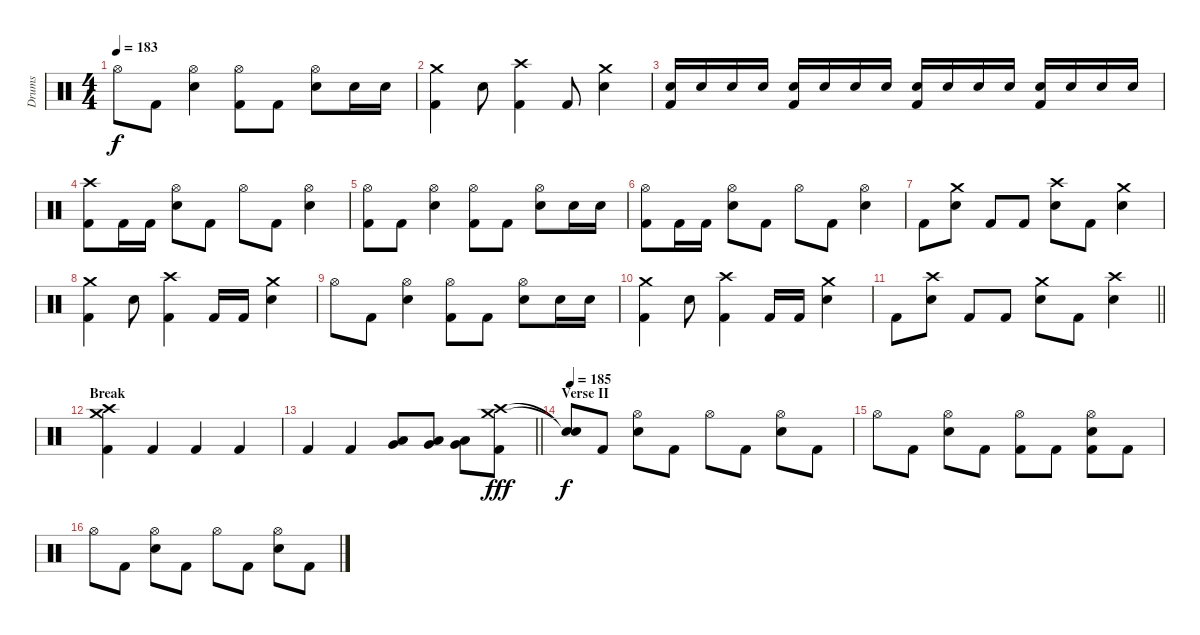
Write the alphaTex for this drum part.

\track ("Drums" "Drums") {instrument percussion}
\staff {score}
\articulation defaults
\ts (4 4)
\tempo 183
\clef neutral
\ks c "Hi-Hat (open)".8{dy f} "Kick (hit) 2".8
("Hi-Hat (open)" "Electric Snare (hit)").4 ("Hi-Hat (open)" "Kick (hit) 2").8 "Kick (hit) 2".8 ("Hi-Hat (open)" "Electric Snare (hit)").8 "Electric Snare (hit)".16 "Electric Snare (hit)".16 |
("Crash medium (hit)" "Kick (hit) 2").4 "Electric Snare (hit)".8 ("Crash high (hit)" "Kick (hit) 2").4 "Kick (hit) 2".8 ("Crash medium (hit)" "Electric Snare (hit)").4 |
("Electric Snare (hit)" "Kick (hit) 2").16 "Electric Snare (hit)".16 "Electric Snare (hit)".16 "Electric Snare (hit)".16 ("Electric Snare (hit)" "Kick (hit) 2").16 "Electric Snare (hit)".16 "Electric Snare (hit)".16 "Electric Snare (hit)".16 ("Electric Snare (hit)" "Kick (hit) 2").16 "Electric Snare (hit)".16 "Electric Snare (hit)".16 "Electric Snare (hit)".16 ("Electric Snare (hit)" "Kick (hit) 2").16 "Electric Snare (hit)".16 "Electric Snare (hit)".16 "Electric Snare (hit)".16 |
("Crash high (hit)" "Kick (hit) 2").8 "Kick (hit) 2".16 "Kick (hit) 2".16 ("Hi-Hat (open)" "Electric Snare (hit)").8 "Kick (hit) 2".8 "Hi-Hat (open)".8 "Kick (hit) 2".8 ("Hi-Hat (open)" "Electric Snare (hit)").4 |
("Hi-Hat (open)" "Kick (hit) 2").8 "Kick (hit) 2".8 ("Hi-Hat (open)" "Electric Snare (hit)").4 ("Hi-Hat (open)" "Kick (hit) 2").8 "Kick (hit) 2".8 ("Hi-Hat (open)" "Electric Snare (hit)").8 "Electric Snare (hit)".16 "Electric Snare (hit)".16 |
("Hi-Hat (open)" "Kick (hit) 2").8 "Kick (hit) 2".16 "Kick (hit) 2".16 ("Hi-Hat (open)" "Electric Snare (hit)").8 "Kick (hit) 2".8 "Hi-Hat (open)".8 "Kick (hit) 2".8 ("Hi-Hat (open)" "Electric Snare (hit)").4 |
"Kick (hit) 2".8 ("Crash medium (hit)" "Electric Snare (hit)").8 "Kick (hit) 2".8 "Kick (hit) 2".8 ("Crash high (hit)" "Electric Snare (hit)").8 "Kick (hit) 2".8 ("Crash medium (hit)" "Electric Snare (hit)").4 |
("Crash medium (hit)" "Kick (hit) 2").4 "Electric Snare (hit)".8 ("Crash high (hit)" "Kick (hit) 2").4 "Kick (hit) 2".16 "Kick (hit) 2".16 ("Crash medium (hit)" "Electric Snare (hit)").4 |
"Hi-Hat (open)".8 "Kick (hit) 2".8 ("Hi-Hat (open)" "Electric Snare (hit)").4 ("Hi-Hat (open)" "Kick (hit) 2").8 "Kick (hit) 2".8 ("Hi-Hat (open)" "Electric Snare (hit)").8 "Electric Snare (hit)".16 "Electric Snare (hit)".16 |
("Crash medium (hit)" "Kick (hit) 2").4 "Electric Snare (hit)".8 ("Crash high (hit)" "Kick (hit) 2").4 "Kick (hit) 2".16 "Kick (hit) 2".16 ("Crash medium (hit)" "Electric Snare (hit)").4 |
\barLineRight lightlight "Kick (hit) 2".8
("Crash high (hit)" "Electric Snare (hit)").8 "Kick (hit) 2".8 "Kick (hit) 2".8 ("Crash medium (hit)" "Electric Snare (hit)").8 "Kick (hit) 2".8 ("Crash high (hit)" "Electric Snare (hit)").4 |
\section ("" "Break")
("Crash medium (hit)" "Crash high (hit)" "Kick (hit) 2").4 "Kick (hit) 2".4 "Kick (hit) 2".4 "Kick (hit) 2".4 |
\barLineRight lightlight "Kick (hit) 2".4 "Kick (hit) 2".4
("Very Low Tom (hit)" "Low Floor Tom (hit)").8 ("Very Low Tom (hit)" "Low Floor Tom (hit)").8 ("Very Low Tom (hit)" "Low Floor Tom (hit)").8 ("Crash medium (hit)" "Crash high (hit)" "Kick (hit) 2").8{dy fff} |
\section ("" "Verse II")
\tempo 185
("Snare (hit)"{t} "Snare (hit)"{t}).8{dy f} "Kick (hit) 2".8 ("Hi-Hat (open)" "Electric Snare (hit)").8 "Kick (hit) 2".8 "Hi-Hat (open)".8 "Kick (hit) 2".8 ("Hi-Hat (open)" "Electric Snare (hit)").8 "Kick (hit) 2".8 |
"Hi-Hat (open)".8 "Kick (hit) 2".8 ("Hi-Hat (open)" "Electric Snare (hit)").8 "Kick (hit) 2".8 ("Hi-Hat (open)" "Kick (hit) 2").8 "Kick (hit) 2".8 ("Hi-Hat (open)" "Electric Snare (hit)" "Kick (hit) 2").8 "Kick (hit) 2".8 |
"Hi-Hat (open)".8 "Kick (hit) 2".8 ("Hi-Hat (open)" "Electric Snare (hit)").8 "Kick (hit) 2".8 "Hi-Hat (open)".8 "Kick (hit) 2".8 ("Hi-Hat (open)" "Electric Snare (hit)").8 "Kick (hit) 2".8
